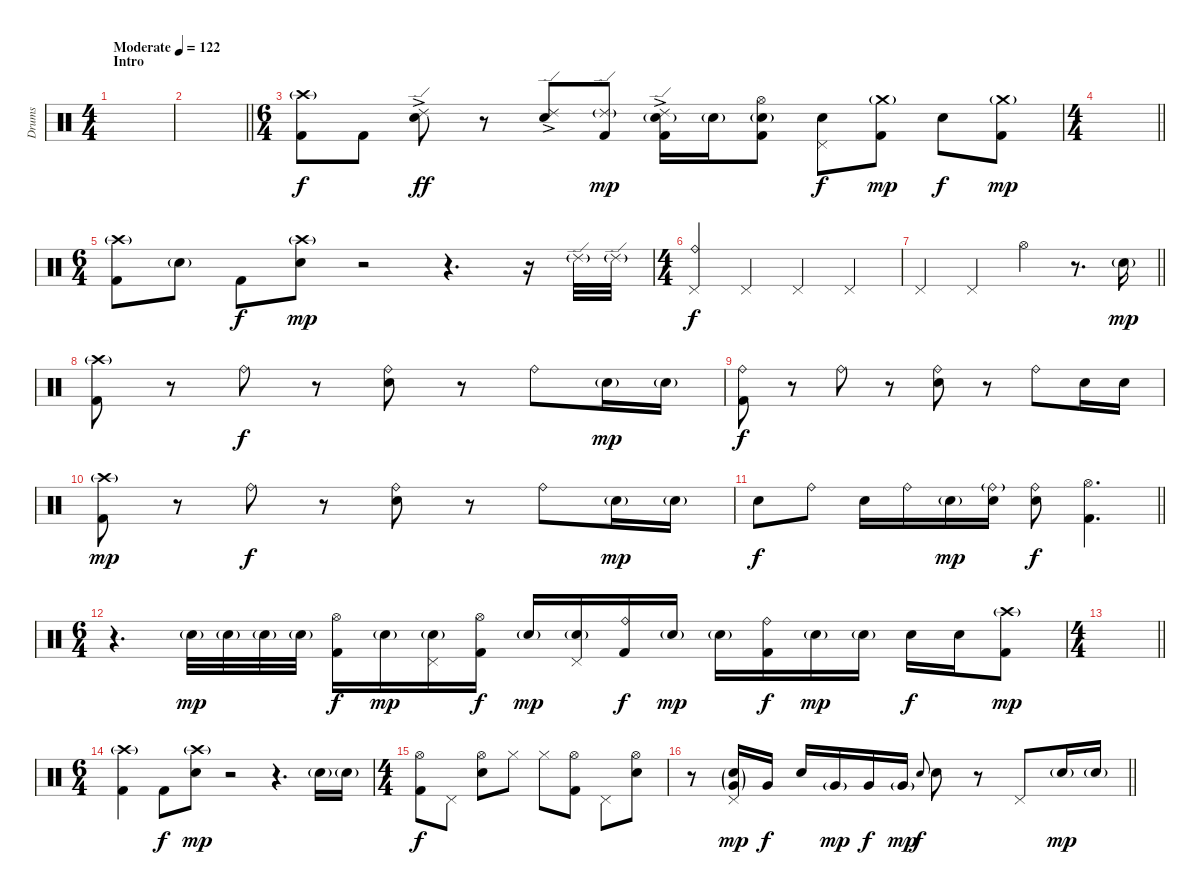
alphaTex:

\track ("Drums" "Drums") {instrument percussion}
\staff {score}
\articulation defaults
\ts (4 4)
\section ("" "Intro")
\tempo (122 "Moderate")
\clef neutral
\ks c
|
\barLineRight lightlight
|
\ts (6 4)
\section ("" "")
("Crash high (hit)"{g} "Kick (hit) 2").8 "Kick (hit) 2".8{dy f} ("Ride (edge) 2"{ac} "Electric Snare (hit)").8{dy ff} r.8 ("Ride (edge) 2"{ac} "Electric Snare (hit)").8 ("Ride (edge) 2"{g} "Kick (hit) 2").8{dy mp} ("Ride (edge) 2"{ac} "Electric Snare (hit)"{g} "Kick (hit) 2").16 "Electric Snare (hit)"{g}.16 ("Hi-Hat (open)" "Electric Snare (hit)"{g} "Kick (hit) 2").8 ("Pedal Hi-Hat (hit)" "Electric Snare (hit)").8{dy f} ("Crash medium (hit)"{g} "Kick (hit) 2").8{dy mp} "Electric Snare (hit)".8{dy f} ("Crash medium (hit)"{g} "Kick (hit) 2").8{dy mp} |
\ts (4 4)
\barLineRight lightlight
|
\ts (6 4)
\section ("" "")
("Crash high (hit)"{g} "Kick (hit) 2").8 "Electric Snare (hit)"{g}.8 "Kick (hit) 2".8{dy f} ("Crash high (hit)"{g} "Electric Snare (hit)").8{dy mp} r.2 r.4{d} r.16 "Ride (edge) 2"{g}.32 "Ride (edge) 2"{g}.32 |
\ts (4 4)
("Ride (bell)" "Pedal Hi-Hat (hit)").4{dy f} "Pedal Hi-Hat (hit)".4 "Pedal Hi-Hat (hit)".4 "Pedal Hi-Hat (hit)".4 |
\barLineRight lightlight "Pedal Hi-Hat (hit)".4 "Pedal Hi-Hat (hit)".4 "Hi-Hat (open)".4
r.8{d} "Electric Snare (hit)"{g}.16{dy mp} |
\section ("" "")
("Crash high (hit)"{g} "Kick (hit) 2").8 r.8 "Ride (bell)".8{dy f} r.8 ("Ride (bell)" "Snare (hit) 2").8 r.8 "Ride (bell)".8 "Electric Snare (hit)"{g}.16{dy mp} "Electric Snare (hit)"{g}.16 |
("Ride (bell)" "Kick (hit) 2").8{dy f} r.8 "Ride (bell)".8 r.8 ("Ride (bell)" "Snare (hit) 2").8 r.8 "Ride (bell)".8 "Electric Snare (hit)".16 "Electric Snare (hit)".16 |
("Crash high (hit)"{g} "Kick (hit) 2").8{dy mp} r.8 "Ride (bell)".8{dy f} r.8 ("Ride (bell)" "Snare (hit) 2").8 r.8 "Ride (bell)".8 "Electric Snare (hit)"{g}.16{dy mp} "Electric Snare (hit)"{g}.16 |
\barLineRight lightlight "Electric Snare (hit)".8{dy f} "Ride (bell)".8 "Electric Snare (hit)".16 "Ride (bell)".16 "Electric Snare (hit)"{g}.16{dy mp}
("Ride (bell)"{g} "Electric Snare (hit)").16 ("Ride (bell)" "Electric Snare (hit)").8{dy f} ("Hi-Hat (open)" "Kick (hit) 2").4{d} |
\ts (6 4)
\section ("" "")
r.4{d} "Electric Snare (hit)"{g}.32{dy mp} "Electric Snare (hit)"{g}.32 "Electric Snare (hit)"{g}.32 "Electric Snare (hit)"{g}.32 ("Hi-Hat (open)" "Kick (hit) 2").16{dy f} "Electric Snare (hit)"{g}.16{dy mp} ("Pedal Hi-Hat (hit)" "Electric Snare (hit)"{g}).16 ("Hi-Hat (open)" "Kick (hit) 2").16{dy f} "Electric Snare (hit)"{g}.16{dy mp} ("Pedal Hi-Hat (hit)" "Electric Snare (hit)"{g}).16 ("Ride (bell)" "Kick (hit) 2").16{dy f} "Electric Snare (hit)"{g}.16{dy mp} "Electric Snare (hit)"{g}.16 ("Ride (bell)" "Kick (hit) 2").16{dy f} "Electric Snare (hit)"{g}.16{dy mp} "Electric Snare (hit)"{g}.16 "Electric Snare (hit)".16{dy f} "Electric Snare (hit)".16 ("Crash high (hit)"{g} "Kick (hit) 2").8{dy mp} |
\ts (4 4)
\barLineRight lightlight
|
\ts (6 4)
\section ("" "")
("Crash high (hit)"{g} "Kick (hit) 2").4 "Kick (hit) 2".8{dy f} ("Crash high (hit)"{g} "Electric Snare (hit)").8{dy mp} r.2 r.4{d} "Electric Snare (hit)"{g}.16 "Electric Snare (hit)"{g}.16 |
\ts (4 4)
("Hi-Hat (open)" "Kick (hit) 2").8{dy f} "Pedal Hi-Hat (hit)".8 ("Hi-Hat (open)" "Snare (hit) 2").8 "Hi-Hat (closed)".8 "Hi-Hat (closed)".8 ("Hi-Hat (open)" "Kick (hit) 2").8 "Pedal Hi-Hat (hit)".8 ("Hi-Hat (open)" "Snare (hit) 2").8 |
\barLineRight lightlight
r.8 ("Very Low Tom (hit)"{g} "Pedal Hi-Hat (hit)" "Electric Snare (hit)"{g}).16{dy mp} "Very Low Tom (hit)".16{dy f} "Electric Snare (hit)".16 "Very Low Tom (hit)"{g}.16{dy mp} "Very Low Tom (hit)".16{dy f} "Very Low Tom (hit)"{g}.16{dy mp} "Snare (hit) 2".8{gr onbeat dy f} "Snare (hit) 2".8 r.8 "Pedal Hi-Hat (hit)".8 "Electric Snare (hit)"{g}.16{dy mp} "Electric Snare (hit)"{g}.16
